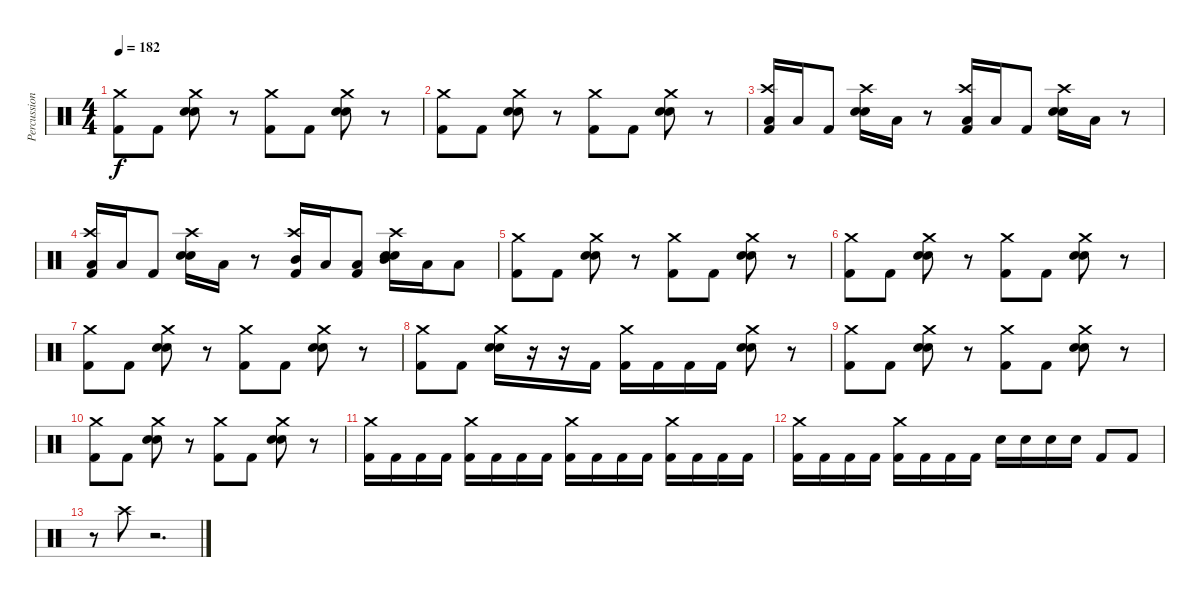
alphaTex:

\track ("Percussion" "Percussion") {instrument percussion}
\staff {score}
\articulation defaults
\ts (4 4)
\tempo 182
\clef neutral
\ks c
("Crash medium (hit)" "Kick (hit) 2").8{dy f} "Kick (hit) 2".8 ("Crash medium (hit)" "Snare (hit) 2" "Electric Snare (hit)").8 r.8 ("Crash medium (hit)" "Kick (hit) 2").8 "Kick (hit) 2".8 ("Crash medium (hit)" "Snare (hit) 2" "Electric Snare (hit)").8 r.8 |
("Crash medium (hit)" "Kick (hit) 2").8 "Kick (hit) 2".8 ("Crash medium (hit)" "Snare (hit) 2" "Electric Snare (hit)").8 r.8 ("Crash medium (hit)" "Kick (hit) 2").8 "Kick (hit) 2".8 ("Crash medium (hit)" "Snare (hit) 2" "Electric Snare (hit)").8 r.8 |
("Crash high (hit)" "Low Floor Tom (hit)" "Kick (hit) 2").16 "Low Floor Tom (hit)".16 "Kick (hit) 2".8 ("Crash high (hit)" "Snare (hit) 2" "Electric Snare (hit)").16 "Low Tom (hit)".16 r.8 ("Crash high (hit)" "Low Floor Tom (hit)" "Kick (hit) 2").16 "Low Floor Tom (hit)".16 "Kick (hit) 2".8 ("Crash high (hit)" "Snare (hit) 2" "Electric Snare (hit)").16 "Low Tom (hit)".16 r.8 |
("Crash high (hit)" "Low Floor Tom (hit)" "Kick (hit) 2").16 "Low Floor Tom (hit)".16 "Kick (hit) 2".8 ("Crash high (hit)" "Snare (hit) 2" "Electric Snare (hit)").16 "Low Tom (hit)".16 r.8 ("Crash high (hit)" "Mid Tom (hit)" "Kick (hit) 2").16 "Low Tom (hit)".16 ("Low Floor Tom (hit)" "Kick (hit) 2").8 ("Crash high (hit)" "Snare (hit) 2" "Electric Snare (hit)" "Mid Tom (hit)").16 "Low Tom (hit)".16 "Low Floor Tom (hit)".8 |
("Crash medium (hit)" "Kick (hit) 2").8 "Kick (hit) 2".8 ("Crash medium (hit)" "Snare (hit) 2" "Electric Snare (hit)").8 r.8 ("Crash medium (hit)" "Kick (hit) 2").8 "Kick (hit) 2".8 ("Crash medium (hit)" "Snare (hit) 2" "Electric Snare (hit)").8 r.8 |
("Crash medium (hit)" "Kick (hit) 2").8 "Kick (hit) 2".8 ("Crash medium (hit)" "Snare (hit) 2" "Electric Snare (hit)").8 r.8 ("Crash medium (hit)" "Kick (hit) 2").8 "Kick (hit) 2".8 ("Crash medium (hit)" "Snare (hit) 2" "Electric Snare (hit)").8 r.8 |
("Crash medium (hit)" "Kick (hit) 2").8 "Kick (hit) 2".8 ("Crash medium (hit)" "Snare (hit) 2" "Electric Snare (hit)").8 r.8 ("Crash medium (hit)" "Kick (hit) 2").8 "Kick (hit) 2".8 ("Crash medium (hit)" "Snare (hit) 2" "Electric Snare (hit)").8 r.8 |
("Crash medium (hit)" "Kick (hit) 2").8 "Kick (hit) 2".8 ("Crash medium (hit)" "Snare (hit) 2" "Electric Snare (hit)").16 r.16 r.16 "Kick (hit) 2".16 ("Crash medium (hit)" "Kick (hit) 2").16 "Kick (hit) 2".16 "Kick (hit) 2".16 "Kick (hit) 2".16 ("Crash medium (hit)" "Snare (hit) 2" "Electric Snare (hit)").8 r.8 |
("Crash medium (hit)" "Kick (hit) 2").8 "Kick (hit) 2".8 ("Crash medium (hit)" "Snare (hit) 2" "Electric Snare (hit)").8 r.8 ("Crash medium (hit)" "Kick (hit) 2").8 "Kick (hit) 2".8 ("Crash medium (hit)" "Snare (hit) 2" "Electric Snare (hit)").8 r.8 |
("Crash medium (hit)" "Kick (hit) 2").8 "Kick (hit) 2".8 ("Crash medium (hit)" "Snare (hit) 2" "Electric Snare (hit)").8 r.8 ("Crash medium (hit)" "Kick (hit) 2").8 "Kick (hit) 2".8 ("Crash medium (hit)" "Snare (hit) 2" "Electric Snare (hit)").8 r.8 |
("Crash medium (hit)" "Kick (hit) 2").16 "Kick (hit) 2".16 "Kick (hit) 2".16 "Kick (hit) 2".16 ("Crash medium (hit)" "Kick (hit) 2").16 "Kick (hit) 2".16 "Kick (hit) 2".16 "Kick (hit) 2".16 ("Crash medium (hit)" "Kick (hit) 2").16 "Kick (hit) 2".16 "Kick (hit) 2".16 "Kick (hit) 2".16 ("Crash medium (hit)" "Kick (hit) 2").16 "Kick (hit) 2".16 "Kick (hit) 2".16 "Kick (hit) 2".16 |
("Crash medium (hit)" "Kick (hit) 2").16 "Kick (hit) 2".16 "Kick (hit) 2".16 "Kick (hit) 2".16 ("Crash medium (hit)" "Kick (hit) 2").16 "Kick (hit) 2".16 "Kick (hit) 2".16 "Kick (hit) 2".16 "Snare (hit) 2".16 "Snare (hit) 2".16 "Snare (hit) 2".16 "Snare (hit) 2".16 "Kick (hit) 2".8 "Kick (hit) 2".8 |
r.8 "Crash high (hit)".8 r.2{d}
